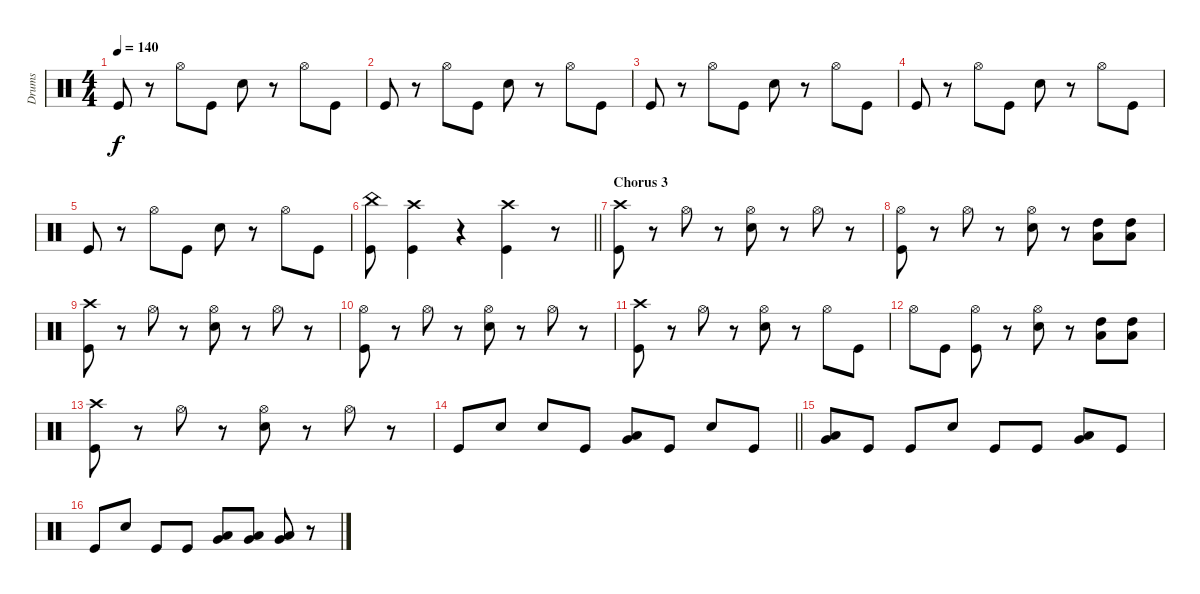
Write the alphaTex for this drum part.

\track ("Drums" "Drums") {instrument percussion}
\staff {score}
\articulation defaults
\ts (4 4)
\tempo 140
\clef neutral
\ks c "Kick (hit)".8{dy f}
r.8 "Hi-Hat (open)".8 "Kick (hit)".8 "Snare (hit) 2".8 r.8 "Hi-Hat (open)".8 "Kick (hit)".8 |
"Kick (hit)".8 r.8 "Hi-Hat (open)".8 "Kick (hit)".8 "Snare (hit) 2".8 r.8 "Hi-Hat (open)".8 "Kick (hit)".8 |
"Kick (hit)".8 r.8 "Hi-Hat (open)".8 "Kick (hit)".8 "Snare (hit) 2".8 r.8 "Hi-Hat (open)".8 "Kick (hit)".8 |
"Kick (hit)".8 r.8 "Hi-Hat (open)".8 "Kick (hit)".8 "Snare (hit) 2".8 r.8 "Hi-Hat (open)".8 "Kick (hit)".8 |
"Kick (hit)".8 r.8 "Hi-Hat (open)".8 "Kick (hit)".8 "Snare (hit) 2".8 r.8 "Hi-Hat (open)".8 "Kick (hit)".8 |
\barLineRight lightlight
("China (hit)" "Kick (hit)").8 ("Crash high (hit)" "Kick (hit)").4 r.4 ("Crash high (hit)" "Kick (hit)").4 r.8 |
\section ("" "Chorus 3")
("Crash high (hit)" "Kick (hit)").8 r.8 "Hi-Hat (open)".8 r.8 ("Hi-Hat (open)" "Snare (hit) 2").8 r.8 "Hi-Hat (open)".8 r.8 |
("Hi-Hat (open)" "Kick (hit)").8 r.8 "Hi-Hat (open)".8 r.8 ("Hi-Hat (open)" "Snare (hit) 2").8 r.8 ("High Tom (hit)" "Low Floor Tom (hit)").8 ("High Tom (hit)" "Low Floor Tom (hit)").8 |
("Crash high (hit)" "Kick (hit)").8 r.8 "Hi-Hat (open)".8 r.8 ("Hi-Hat (open)" "Snare (hit) 2").8 r.8 "Hi-Hat (open)".8 r.8 |
("Hi-Hat (open)" "Kick (hit)").8 r.8 "Hi-Hat (open)".8 r.8 ("Hi-Hat (open)" "Snare (hit) 2").8 r.8 "Hi-Hat (open)".8 r.8 |
("Crash high (hit)" "Kick (hit)").8 r.8 "Hi-Hat (open)".8 r.8 ("Hi-Hat (open)" "Snare (hit) 2").8 r.8 "Hi-Hat (open)".8 "Kick (hit)".8 |
"Hi-Hat (open)".8 "Kick (hit)".8 ("Hi-Hat (open)" "Kick (hit)").8 r.8 ("Hi-Hat (open)" "Snare (hit) 2").8 r.8 ("High Tom (hit)" "Low Floor Tom (hit)").8 ("High Tom (hit)" "Low Floor Tom (hit)").8 |
("Crash high (hit)" "Kick (hit)").8 r.8 "Hi-Hat (open)".8 r.8 ("Hi-Hat (open)" "Snare (hit) 2").8 r.8 "Hi-Hat (open)".8 r.8 |
\barLineRight lightlight "Kick (hit)".8 "Snare (hit) 2".8 "Snare (hit) 2".8 "Kick (hit)".8
("Low Tom (hit)" "Very Low Tom (hit)").8 "Kick (hit)".8 "Snare (hit) 2".8 "Kick (hit)".8 |
("Low Tom (hit)" "Very Low Tom (hit)").8 "Kick (hit)".8 "Kick (hit)".8 "Snare (hit) 2".8 "Kick (hit)".8 "Kick (hit)".8 ("Low Tom (hit)" "Very Low Tom (hit)").8 "Kick (hit)".8 |
"Kick (hit)".8 "Snare (hit) 2".8 "Kick (hit)".8 "Kick (hit)".8 ("Low Tom (hit)" "Very Low Tom (hit)").8 ("Low Tom (hit)" "Very Low Tom (hit)").8 ("Low Tom (hit)" "Very Low Tom (hit)").8 r.8
